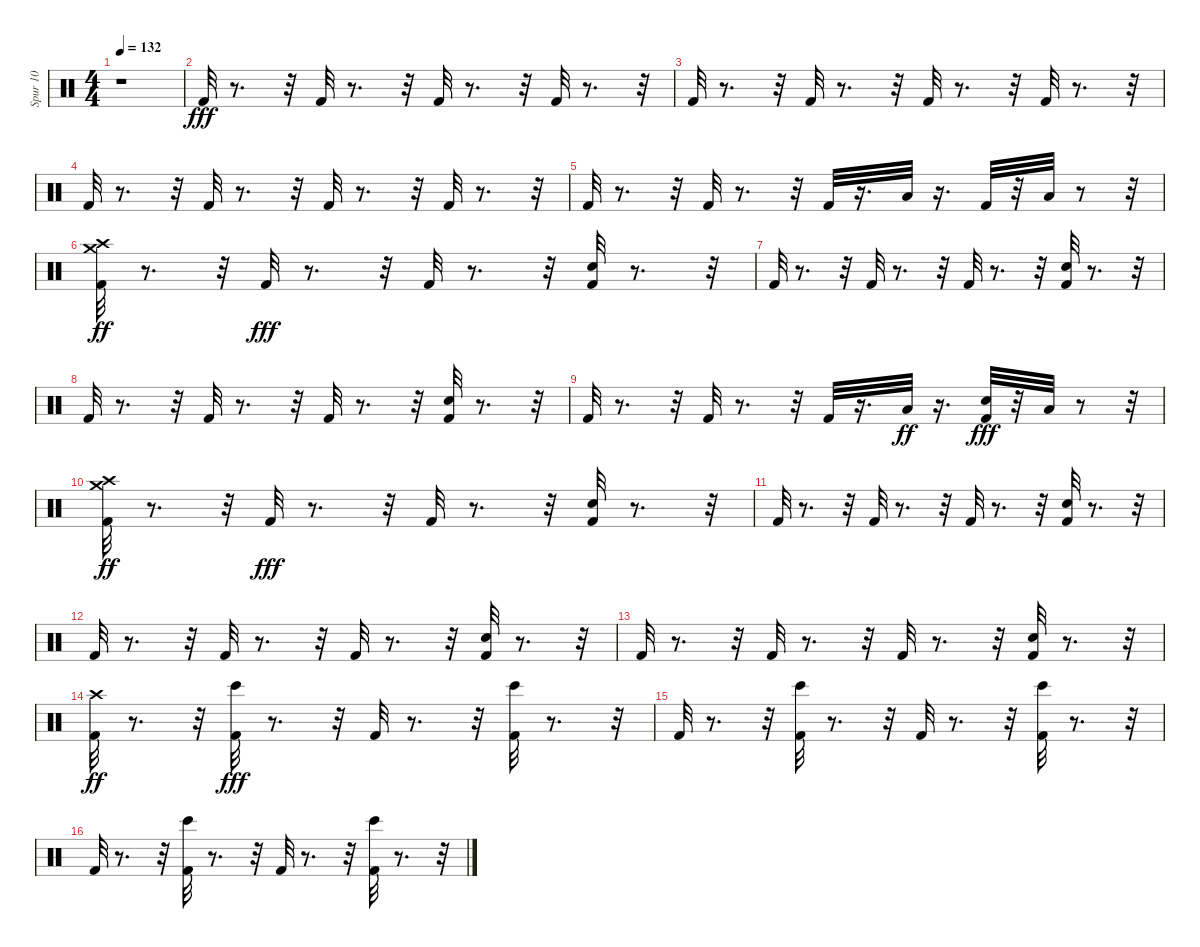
\track ("Spur 10" "Spur 10") {instrument percussion}
\staff {score}
\articulation defaults
\ts (4 4)
\tempo 132
\clef neutral
\ks c
r.1{dy fff} |
"Kick (hit) 2".32 r.8{d} r.32 "Kick (hit) 2".32 r.8{d} r.32 "Kick (hit) 2".32 r.8{d} r.32 "Kick (hit) 2".32 r.8{d} r.32 |
"Kick (hit) 2".32 r.8{d} r.32 "Kick (hit) 2".32 r.8{d} r.32 "Kick (hit) 2".32 r.8{d} r.32 "Kick (hit) 2".32 r.8{d} r.32 |
"Kick (hit) 2".32 r.8{d} r.32 "Kick (hit) 2".32 r.8{d} r.32 "Kick (hit) 2".32 r.8{d} r.32 "Kick (hit) 2".32 r.8{d} r.32 |
"Kick (hit) 2".32 r.8{d} r.32 "Kick (hit) 2".32 r.8{d} r.32 "Kick (hit) 2".32 r.16{d} "Low Tom (hit)".32 r.16{d} "Kick (hit) 2".32 r.32 "Low Floor Tom (hit)".32 r.8 r.32 |
("Crash medium (hit)" "Kick (hit) 2" "Crash high (hit)").32{dy ff} r.8{d} r.32 "Kick (hit) 2".32{dy fff} r.8{d} r.32 "Kick (hit) 2".32 r.8{d} r.32 ("Electric Snare (hit)" "Kick (hit) 2").32 r.8{d} r.32 |
"Kick (hit) 2".32 r.8{d} r.32 "Kick (hit) 2".32 r.8{d} r.32 "Kick (hit) 2".32 r.8{d} r.32 ("Electric Snare (hit)" "Kick (hit) 2").32 r.8{d} r.32 |
"Kick (hit) 2".32 r.8{d} r.32 "Kick (hit) 2".32 r.8{d} r.32 "Kick (hit) 2".32 r.8{d} r.32 ("Electric Snare (hit)" "Kick (hit) 2").32 r.8{d} r.32 |
"Kick (hit) 2".32 r.8{d} r.32 "Kick (hit) 2".32 r.8{d} r.32 "Kick (hit) 2".32 r.16{d} "Low Tom (hit)".32{dy ff} r.16{d} ("Electric Snare (hit)" "Kick (hit) 2").32{dy fff} r.32 "Low Floor Tom (hit)".32 r.8 r.32 |
("Crash medium (hit)" "Kick (hit) 2" "Crash high (hit)").32{dy ff} r.8{d} r.32 "Kick (hit) 2".32{dy fff} r.8{d} r.32 "Kick (hit) 2".32 r.8{d} r.32 ("Electric Snare (hit)" "Kick (hit) 2").32 r.8{d} r.32 |
"Kick (hit) 2".32 r.8{d} r.32 "Kick (hit) 2".32 r.8{d} r.32 "Kick (hit) 2".32 r.8{d} r.32 ("Electric Snare (hit)" "Kick (hit) 2").32 r.8{d} r.32 |
"Kick (hit) 2".32 r.8{d} r.32 "Kick (hit) 2".32 r.8{d} r.32 "Kick (hit) 2".32 r.8{d} r.32 ("Electric Snare (hit)" "Kick (hit) 2").32 r.8{d} r.32 |
"Kick (hit) 2".32 r.8{d} r.32 "Kick (hit) 2".32 r.8{d} r.32 "Kick (hit) 2".32 r.8{d} r.32 ("Electric Snare (hit)" "Kick (hit) 2").32 r.8{d} r.32 |
("Kick (hit) 2" "Crash high (hit)").32{dy ff} r.8{d} r.32 ("Bongo High (hit)" "Kick (hit) 2").32{dy fff} r.8{d} r.32 "Kick (hit) 2".32 r.8{d} r.32 ("Bongo High (hit)" "Kick (hit) 2").32 r.8{d} r.32 |
"Kick (hit) 2".32 r.8{d} r.32 ("Bongo High (hit)" "Kick (hit) 2").32 r.8{d} r.32 "Kick (hit) 2".32 r.8{d} r.32 ("Bongo High (hit)" "Kick (hit) 2").32 r.8{d} r.32 |
"Kick (hit) 2".32 r.8{d} r.32 ("Bongo High (hit)" "Kick (hit) 2").32 r.8{d} r.32 "Kick (hit) 2".32 r.8{d} r.32 ("Bongo High (hit)" "Kick (hit) 2").32 r.8{d} r.32
